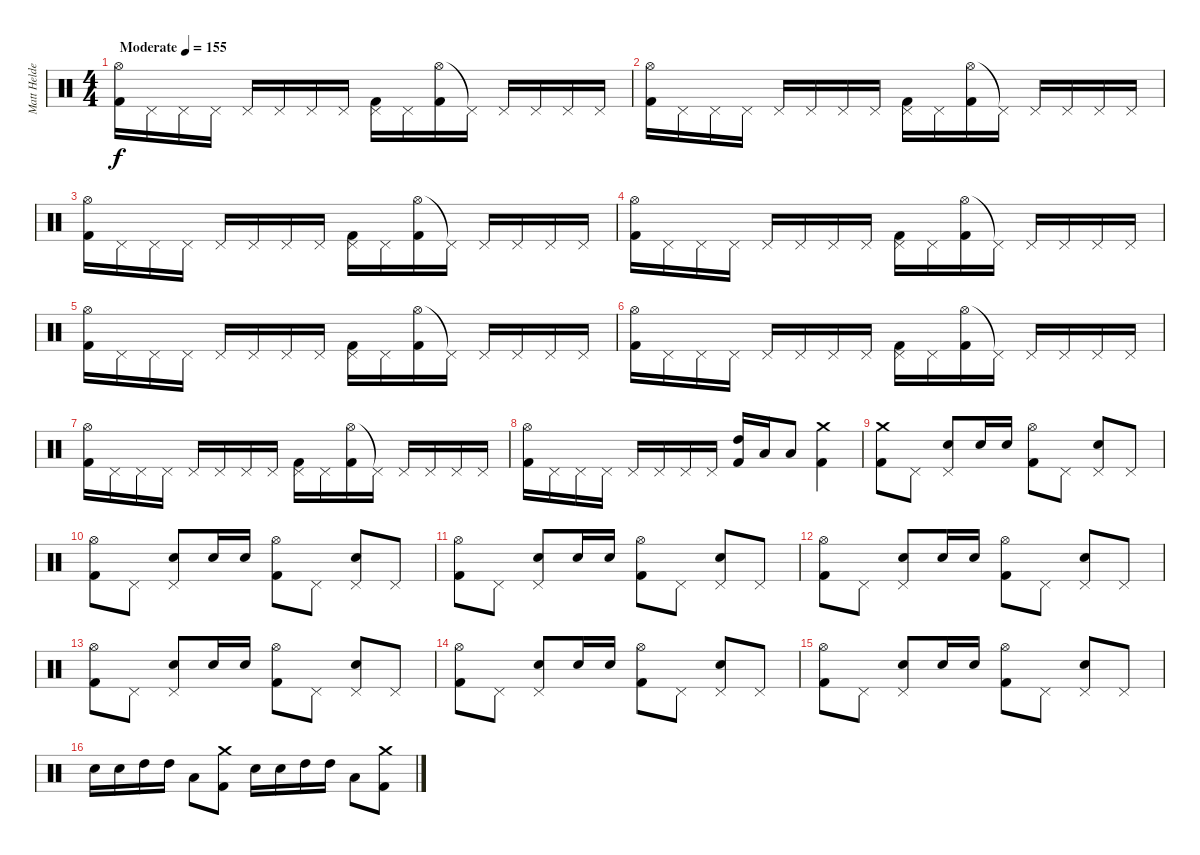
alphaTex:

\track ("Matt Helders" "Matt Helde") {instrument percussion}
\staff {score}
\articulation defaults
\ts (4 4)
\tempo (155 "Moderate")
\clef neutral
\ks c
("Hi-Hat (open)" "Kick (hit) 2").16{dy f} "Pedal Hi-Hat (hit)".16 "Pedal Hi-Hat (hit)".16 "Pedal Hi-Hat (hit)".16 "Pedal Hi-Hat (hit)".16 "Pedal Hi-Hat (hit)".16 "Pedal Hi-Hat (hit)".16 "Pedal Hi-Hat (hit)".16 ("Pedal Hi-Hat (hit)" "Kick (hit) 2").16 "Pedal Hi-Hat (hit)".16 ("Hi-Hat (open)" "Kick (hit) 2").16 "Pedal Hi-Hat (hit)"{t}.16 "Pedal Hi-Hat (hit)".16 "Pedal Hi-Hat (hit)".16 "Pedal Hi-Hat (hit)".16 "Pedal Hi-Hat (hit)".16 |
("Hi-Hat (open)" "Kick (hit) 2").16 "Pedal Hi-Hat (hit)".16 "Pedal Hi-Hat (hit)".16 "Pedal Hi-Hat (hit)".16 "Pedal Hi-Hat (hit)".16 "Pedal Hi-Hat (hit)".16 "Pedal Hi-Hat (hit)".16 "Pedal Hi-Hat (hit)".16 ("Pedal Hi-Hat (hit)" "Kick (hit) 2").16 "Pedal Hi-Hat (hit)".16 ("Hi-Hat (open)" "Kick (hit) 2").16 "Pedal Hi-Hat (hit)"{t}.16 "Pedal Hi-Hat (hit)".16 "Pedal Hi-Hat (hit)".16 "Pedal Hi-Hat (hit)".16 "Pedal Hi-Hat (hit)".16 |
("Hi-Hat (open)" "Kick (hit) 2").16 "Pedal Hi-Hat (hit)".16 "Pedal Hi-Hat (hit)".16 "Pedal Hi-Hat (hit)".16 "Pedal Hi-Hat (hit)".16 "Pedal Hi-Hat (hit)".16 "Pedal Hi-Hat (hit)".16 "Pedal Hi-Hat (hit)".16 ("Pedal Hi-Hat (hit)" "Kick (hit) 2").16 "Pedal Hi-Hat (hit)".16 ("Hi-Hat (open)" "Kick (hit) 2").16 "Pedal Hi-Hat (hit)"{t}.16 "Pedal Hi-Hat (hit)".16 "Pedal Hi-Hat (hit)".16 "Pedal Hi-Hat (hit)".16 "Pedal Hi-Hat (hit)".16 |
("Hi-Hat (open)" "Kick (hit) 2").16 "Pedal Hi-Hat (hit)".16 "Pedal Hi-Hat (hit)".16 "Pedal Hi-Hat (hit)".16 "Pedal Hi-Hat (hit)".16 "Pedal Hi-Hat (hit)".16 "Pedal Hi-Hat (hit)".16 "Pedal Hi-Hat (hit)".16 ("Pedal Hi-Hat (hit)" "Kick (hit) 2").16 "Pedal Hi-Hat (hit)".16 ("Hi-Hat (open)" "Kick (hit) 2").16 "Pedal Hi-Hat (hit)"{t}.16 "Pedal Hi-Hat (hit)".16 "Pedal Hi-Hat (hit)".16 "Pedal Hi-Hat (hit)".16 "Pedal Hi-Hat (hit)".16 |
("Hi-Hat (open)" "Kick (hit) 2").16 "Pedal Hi-Hat (hit)".16 "Pedal Hi-Hat (hit)".16 "Pedal Hi-Hat (hit)".16 "Pedal Hi-Hat (hit)".16 "Pedal Hi-Hat (hit)".16 "Pedal Hi-Hat (hit)".16 "Pedal Hi-Hat (hit)".16 ("Pedal Hi-Hat (hit)" "Kick (hit) 2").16 "Pedal Hi-Hat (hit)".16 ("Hi-Hat (open)" "Kick (hit) 2").16 "Pedal Hi-Hat (hit)"{t}.16 "Pedal Hi-Hat (hit)".16 "Pedal Hi-Hat (hit)".16 "Pedal Hi-Hat (hit)".16 "Pedal Hi-Hat (hit)".16 |
("Hi-Hat (open)" "Kick (hit) 2").16 "Pedal Hi-Hat (hit)".16 "Pedal Hi-Hat (hit)".16 "Pedal Hi-Hat (hit)".16 "Pedal Hi-Hat (hit)".16 "Pedal Hi-Hat (hit)".16 "Pedal Hi-Hat (hit)".16 "Pedal Hi-Hat (hit)".16 ("Pedal Hi-Hat (hit)" "Kick (hit) 2").16 "Pedal Hi-Hat (hit)".16 ("Hi-Hat (open)" "Kick (hit) 2").16 "Pedal Hi-Hat (hit)"{t}.16 "Pedal Hi-Hat (hit)".16 "Pedal Hi-Hat (hit)".16 "Pedal Hi-Hat (hit)".16 "Pedal Hi-Hat (hit)".16 |
("Hi-Hat (open)" "Kick (hit) 2").16 "Pedal Hi-Hat (hit)".16 "Pedal Hi-Hat (hit)".16 "Pedal Hi-Hat (hit)".16 "Pedal Hi-Hat (hit)".16 "Pedal Hi-Hat (hit)".16 "Pedal Hi-Hat (hit)".16 "Pedal Hi-Hat (hit)".16 ("Pedal Hi-Hat (hit)" "Kick (hit) 2").16 "Pedal Hi-Hat (hit)".16 ("Hi-Hat (open)" "Kick (hit) 2").16 "Pedal Hi-Hat (hit)"{t}.16 "Pedal Hi-Hat (hit)".16 "Pedal Hi-Hat (hit)".16 "Pedal Hi-Hat (hit)".16 "Pedal Hi-Hat (hit)".16 |
("Hi-Hat (open)" "Kick (hit) 2").16 "Pedal Hi-Hat (hit)".16 "Pedal Hi-Hat (hit)".16 "Pedal Hi-Hat (hit)".16 "Pedal Hi-Hat (hit)".16 "Pedal Hi-Hat (hit)".16 "Pedal Hi-Hat (hit)".16 "Pedal Hi-Hat (hit)".16 ("High Tom (hit)" "Kick (hit) 2").16 "Low Tom (hit)".16 "Low Tom (hit)".8 ("Crash medium (hit)" "Kick (hit) 2").4 |
("Crash medium (hit)" "Kick (hit) 2").8 "Pedal Hi-Hat (hit)".8 ("Pedal Hi-Hat (hit)" "Snare (hit) 2").8 "Snare (hit) 2".16 "Snare (hit) 2".16 ("Hi-Hat (open)" "Kick (hit) 2").8 "Pedal Hi-Hat (hit)".8 ("Pedal Hi-Hat (hit)" "Snare (hit) 2").8 "Pedal Hi-Hat (hit)".8 |
("Hi-Hat (open)" "Kick (hit) 2").8 "Pedal Hi-Hat (hit)".8 ("Pedal Hi-Hat (hit)" "Snare (hit) 2").8 "Snare (hit) 2".16 "Snare (hit) 2".16 ("Hi-Hat (open)" "Kick (hit) 2").8 "Pedal Hi-Hat (hit)".8 ("Pedal Hi-Hat (hit)" "Snare (hit) 2").8 "Pedal Hi-Hat (hit)".8 |
("Hi-Hat (open)" "Kick (hit) 2").8 "Pedal Hi-Hat (hit)".8 ("Pedal Hi-Hat (hit)" "Snare (hit) 2").8 "Snare (hit) 2".16 "Snare (hit) 2".16 ("Hi-Hat (open)" "Kick (hit) 2").8 "Pedal Hi-Hat (hit)".8 ("Pedal Hi-Hat (hit)" "Snare (hit) 2").8 "Pedal Hi-Hat (hit)".8 |
("Hi-Hat (open)" "Kick (hit) 2").8 "Pedal Hi-Hat (hit)".8 ("Pedal Hi-Hat (hit)" "Snare (hit) 2").8 "Snare (hit) 2".16 "Snare (hit) 2".16 ("Hi-Hat (open)" "Kick (hit) 2").8 "Pedal Hi-Hat (hit)".8 ("Pedal Hi-Hat (hit)" "Snare (hit) 2").8 "Pedal Hi-Hat (hit)".8 |
("Hi-Hat (open)" "Kick (hit) 2").8 "Pedal Hi-Hat (hit)".8 ("Pedal Hi-Hat (hit)" "Snare (hit) 2").8 "Snare (hit) 2".16 "Snare (hit) 2".16 ("Hi-Hat (open)" "Kick (hit) 2").8 "Pedal Hi-Hat (hit)".8 ("Pedal Hi-Hat (hit)" "Snare (hit) 2").8 "Pedal Hi-Hat (hit)".8 |
("Hi-Hat (open)" "Kick (hit) 2").8 "Pedal Hi-Hat (hit)".8 ("Pedal Hi-Hat (hit)" "Snare (hit) 2").8 "Snare (hit) 2".16 "Snare (hit) 2".16 ("Hi-Hat (open)" "Kick (hit) 2").8 "Pedal Hi-Hat (hit)".8 ("Pedal Hi-Hat (hit)" "Snare (hit) 2").8 "Pedal Hi-Hat (hit)".8 |
("Hi-Hat (open)" "Kick (hit) 2").8 "Pedal Hi-Hat (hit)".8 ("Pedal Hi-Hat (hit)" "Snare (hit) 2").8 "Snare (hit) 2".16 "Snare (hit) 2".16 ("Hi-Hat (open)" "Kick (hit) 2").8 "Pedal Hi-Hat (hit)".8 ("Pedal Hi-Hat (hit)" "Snare (hit) 2").8 "Pedal Hi-Hat (hit)".8 |
"Snare (hit) 2".16 "Snare (hit) 2".16 "High Tom (hit)".16 "High Tom (hit)".16 "Low Tom (hit)".8 ("Crash medium (hit)" "Kick (hit) 2").8 "Snare (hit) 2".16 "Snare (hit) 2".16 "High Tom (hit)".16 "High Tom (hit)".16 "Low Tom (hit)".8 ("Crash medium (hit)" "Kick (hit) 2").8
